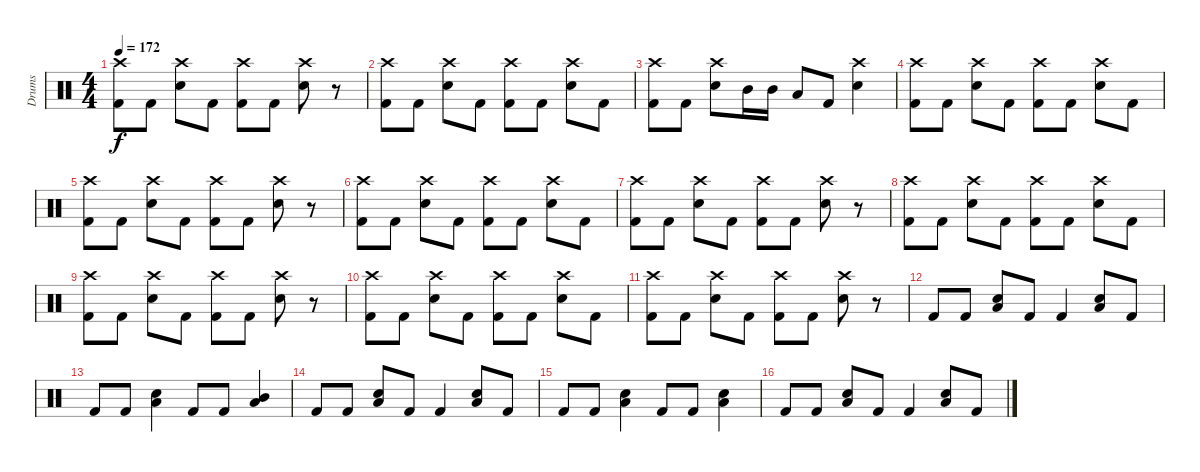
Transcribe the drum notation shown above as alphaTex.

\track ("Drums" "Drums") {instrument percussion}
\staff {score}
\articulation defaults
\ts (4 4)
\tempo 172
\clef neutral
\ks c
("Crash high (hit)" "Kick (hit) 2").8{dy f} "Kick (hit) 2".8 ("Crash high (hit)" "Electric Snare (hit)").8 "Kick (hit) 2".8 ("Crash high (hit)" "Kick (hit) 2").8 "Kick (hit) 2".8 ("Crash high (hit)" "Electric Snare (hit)").8 r.8 |
("Crash high (hit)" "Kick (hit) 2").8 "Kick (hit) 2".8 ("Crash high (hit)" "Electric Snare (hit)").8 "Kick (hit) 2".8 ("Crash high (hit)" "Kick (hit) 2").8 "Kick (hit) 2".8 ("Crash high (hit)" "Electric Snare (hit)").8 "Kick (hit) 2".8 |
("Crash high (hit)" "Kick (hit) 2").8 "Kick (hit) 2".8 ("Crash high (hit)" "Electric Snare (hit)").8 "Mid Tom (hit)".16 "Mid Tom (hit)".16 "Low Tom (hit)".8 "Kick (hit) 2".8 ("Crash high (hit)" "Electric Snare (hit)").4 |
("Crash high (hit)" "Kick (hit) 2").8 "Kick (hit) 2".8 ("Crash high (hit)" "Electric Snare (hit)").8 "Kick (hit) 2".8 ("Crash high (hit)" "Kick (hit) 2").8 "Kick (hit) 2".8 ("Crash high (hit)" "Electric Snare (hit)").8 "Kick (hit) 2".8 |
("Crash high (hit)" "Kick (hit) 2").8 "Kick (hit) 2".8 ("Crash high (hit)" "Electric Snare (hit)").8 "Kick (hit) 2".8 ("Crash high (hit)" "Kick (hit) 2").8 "Kick (hit) 2".8 ("Crash high (hit)" "Electric Snare (hit)").8 r.8 |
("Crash high (hit)" "Kick (hit) 2").8 "Kick (hit) 2".8 ("Crash high (hit)" "Electric Snare (hit)").8 "Kick (hit) 2".8 ("Crash high (hit)" "Kick (hit) 2").8 "Kick (hit) 2".8 ("Crash high (hit)" "Electric Snare (hit)").8 "Kick (hit) 2".8 |
("Crash high (hit)" "Kick (hit) 2").8 "Kick (hit) 2".8 ("Crash high (hit)" "Electric Snare (hit)").8 "Kick (hit) 2".8 ("Crash high (hit)" "Kick (hit) 2").8 "Kick (hit) 2".8 ("Crash high (hit)" "Electric Snare (hit)").8 r.8 |
("Crash high (hit)" "Kick (hit) 2").8 "Kick (hit) 2".8 ("Crash high (hit)" "Electric Snare (hit)").8 "Kick (hit) 2".8 ("Crash high (hit)" "Kick (hit) 2").8 "Kick (hit) 2".8 ("Crash high (hit)" "Electric Snare (hit)").8 "Kick (hit) 2".8 |
("Crash high (hit)" "Kick (hit) 2").8 "Kick (hit) 2".8 ("Crash high (hit)" "Electric Snare (hit)").8 "Kick (hit) 2".8 ("Crash high (hit)" "Kick (hit) 2").8 "Kick (hit) 2".8 ("Crash high (hit)" "Electric Snare (hit)").8 r.8 |
("Crash high (hit)" "Kick (hit) 2").8 "Kick (hit) 2".8 ("Crash high (hit)" "Electric Snare (hit)").8 "Kick (hit) 2".8 ("Crash high (hit)" "Kick (hit) 2").8 "Kick (hit) 2".8 ("Crash high (hit)" "Electric Snare (hit)").8 "Kick (hit) 2".8 |
("Crash high (hit)" "Kick (hit) 2").8 "Kick (hit) 2".8 ("Crash high (hit)" "Electric Snare (hit)").8 "Kick (hit) 2".8 ("Crash high (hit)" "Kick (hit) 2").8 "Kick (hit) 2".8 ("Crash high (hit)" "Electric Snare (hit)").8 r.8 |
"Kick (hit) 2".8 "Kick (hit) 2".8 ("Electric Snare (hit)" "Low Floor Tom (hit)").8 "Kick (hit) 2".8 "Kick (hit) 2".4 ("Electric Snare (hit)" "Low Floor Tom (hit)").8 "Kick (hit) 2".8 |
"Kick (hit) 2".8 "Kick (hit) 2".8 ("Electric Snare (hit)" "Low Floor Tom (hit)").4 "Kick (hit) 2".8 "Kick (hit) 2".8 ("Low Tom (hit)" "Mid Tom (hit)").4 |
"Kick (hit) 2".8 "Kick (hit) 2".8 ("Electric Snare (hit)" "Low Floor Tom (hit)").8 "Kick (hit) 2".8 "Kick (hit) 2".4 ("Electric Snare (hit)" "Low Floor Tom (hit)").8 "Kick (hit) 2".8 |
"Kick (hit) 2".8 "Kick (hit) 2".8 ("Electric Snare (hit)" "Low Floor Tom (hit)").4 "Kick (hit) 2".8 "Kick (hit) 2".8 ("Electric Snare (hit)" "Low Floor Tom (hit)").4 |
"Kick (hit) 2".8 "Kick (hit) 2".8 ("Electric Snare (hit)" "Low Floor Tom (hit)").8 "Kick (hit) 2".8 "Kick (hit) 2".4 ("Electric Snare (hit)" "Low Floor Tom (hit)").8 "Kick (hit) 2".8
